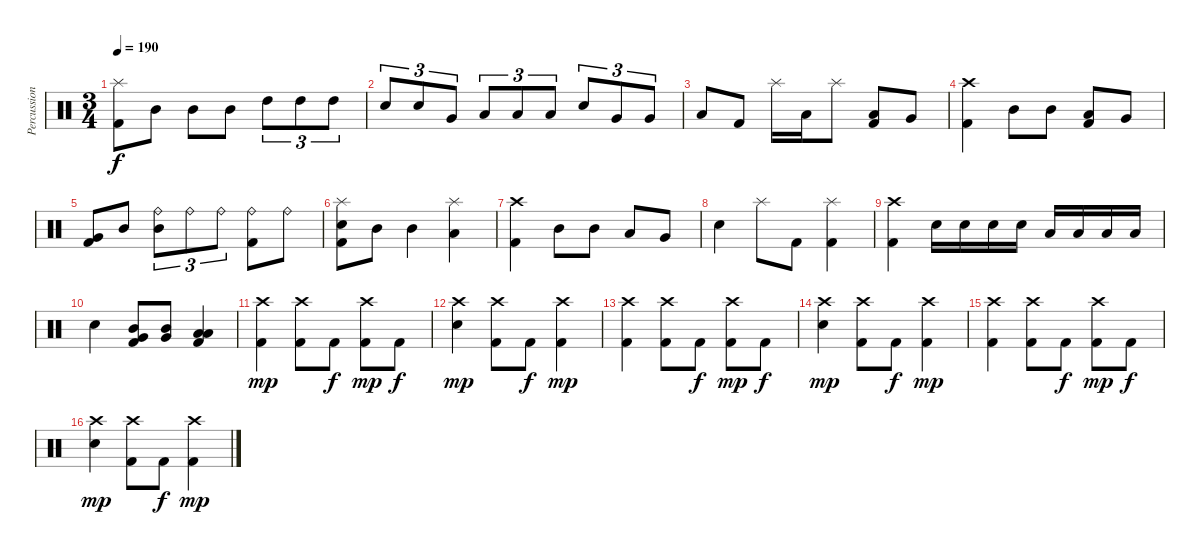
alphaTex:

\track ("Percussion" "Percussion") {instrument percussion}
\staff {score}
\articulation defaults
\ts (3 4)
\tempo 190
\clef neutral
\ks c
("Splash (hit)" "Kick (hit) 2").8{dy f} "Mid Tom (hit)".8 "Mid Tom (hit)".8 "Mid Tom (hit)".8 "High Tom (hit)".8{tu (3 2)} "High Tom (hit)".8{tu (3 2)} "High Tom (hit)".8{tu (3 2)} |
"Electric Snare (hit)".8{tu (3 2)} "Electric Snare (hit)".8{tu (3 2)} "Very Low Tom (hit)".8{tu (3 2)} "Low Tom (hit)".8{tu (3 2)} "Low Tom (hit)".8{tu (3 2)} "Low Tom (hit)".8{tu (3 2)} "Electric Snare (hit)".8{tu (3 2)} "Very Low Tom (hit)".8{tu (3 2)} "Very Low Tom (hit)".8{tu (3 2)} |
"Low Floor Tom (hit)".8 "Kick (hit) 2".8 "Splash (hit)".16 "Low Tom (hit)".16 "Splash (hit)".8 ("Low Tom (hit)" "Kick (hit) 2").8 "Very Low Tom (hit)".8 |
("Crash high (hit)" "Kick (hit) 2").4 "Mid Tom (hit)".8 "Mid Tom (hit)".8 ("Low Tom (hit)" "Kick (hit) 2").8 "Very Low Tom (hit)".8 |
("Very Low Tom (hit)" "Kick (hit) 2").8 "Mid Tom (hit)".8 ("Ride (bell)" "Mid Tom (hit)").8{tu (3 2)} "Ride (bell)".8{tu (3 2)} "Ride (bell)".8{tu (3 2)} ("Ride (bell)" "Kick (hit) 2").8 "Ride (bell)".8 |
("Splash (hit)" "Electric Snare (hit)" "Kick (hit) 2").8 "Mid Tom (hit)".8 "Mid Tom (hit)".4 ("Splash (hit)" "Low Tom (hit)").4 |
("Crash high (hit)" "Kick (hit) 2").4 "Mid Tom (hit)".8 "Mid Tom (hit)".8 "Low Tom (hit)".8 "Very Low Tom (hit)".8 |
"Electric Snare (hit)".4 "Splash (hit)".8 "Kick (hit) 2".8 ("Splash (hit)" "Kick (hit) 2").4 |
("Crash high (hit)" "Kick (hit) 2").4 "Electric Snare (hit)".16 "Electric Snare (hit)".16 "Electric Snare (hit)".16 "Electric Snare (hit)".16 "Low Tom (hit)".16 "Low Tom (hit)".16 "Low Tom (hit)".16 "Low Tom (hit)".16 |
"Electric Snare (hit)".4 ("Mid Tom (hit)" "Very Low Tom (hit)" "Kick (hit) 2").8 ("Mid Tom (hit)" "Very Low Tom (hit)").8 ("Low Tom (hit)" "Low Floor Tom (hit)" "Kick (hit) 2").4 |
("Crash high (hit)" "Kick (hit) 2").4{dy mp} ("Crash high (hit)" "Kick (hit) 2").8 "Kick (hit) 2".8{dy f} ("Crash high (hit)" "Kick (hit) 2").8{dy mp} "Kick (hit) 2".8{dy f} |
("Crash high (hit)" "Electric Snare (hit)").4{dy mp} ("Crash high (hit)" "Kick (hit) 2").8 "Kick (hit) 2".8{dy f} ("Crash high (hit)" "Kick (hit) 2").4{dy mp} |
("Crash high (hit)" "Kick (hit) 2").4 ("Crash high (hit)" "Kick (hit) 2").8 "Kick (hit) 2".8{dy f} ("Crash high (hit)" "Kick (hit) 2").8{dy mp} "Kick (hit) 2".8{dy f} |
("Crash high (hit)" "Electric Snare (hit)").4{dy mp} ("Crash high (hit)" "Kick (hit) 2").8 "Kick (hit) 2".8{dy f} ("Crash high (hit)" "Kick (hit) 2").4{dy mp} |
("Crash high (hit)" "Kick (hit) 2").4 ("Crash high (hit)" "Kick (hit) 2").8 "Kick (hit) 2".8{dy f} ("Crash high (hit)" "Kick (hit) 2").8{dy mp} "Kick (hit) 2".8{dy f} |
("Crash high (hit)" "Electric Snare (hit)").4{dy mp} ("Crash high (hit)" "Kick (hit) 2").8 "Kick (hit) 2".8{dy f} ("Crash high (hit)" "Kick (hit) 2").4{dy mp}
